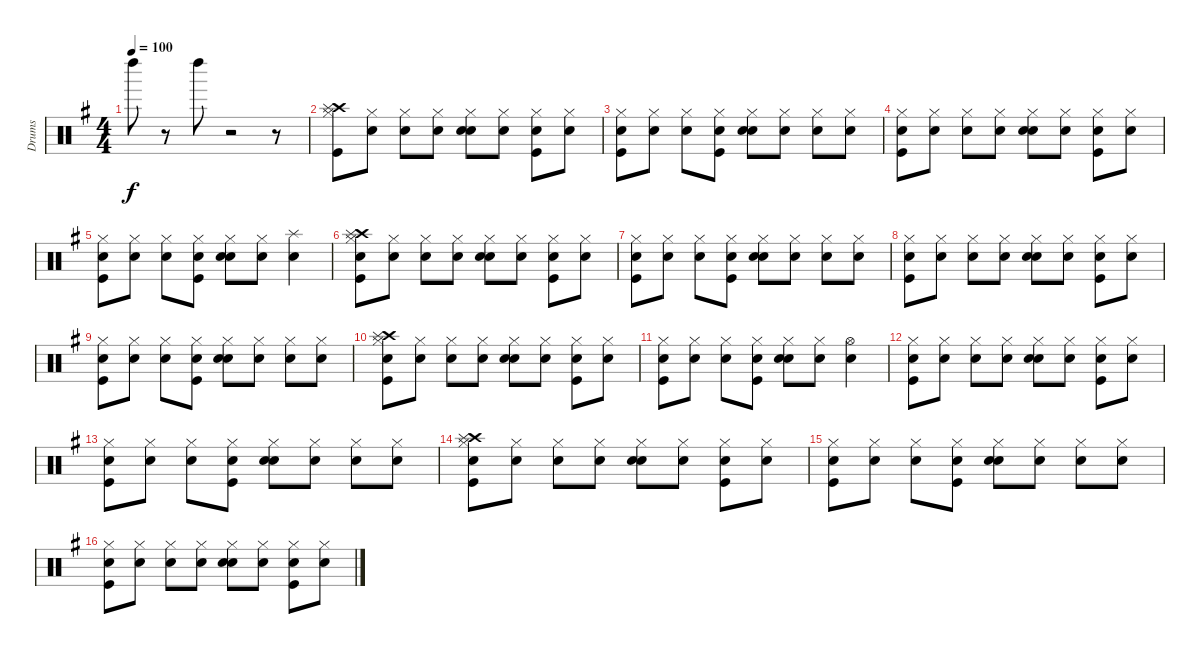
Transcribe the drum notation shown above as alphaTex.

\track ("Drums" "Drums") {instrument percussion}
\staff {score}
\articulation defaults
\ts (4 4)
\tempo 100
\clef neutral
\ks g "Left Maraca (hit)".8{dy f}
r.8 "Left Maraca (hit)".8 r.2 r.8 |
("Kick (hit)" "Crash high (hit)" "Splash (hit)" "Hi-Hat (closed)").8 ("Snare (hit)" "Hi-Hat (closed)").8 ("Snare (hit)" "Hi-Hat (closed)").8 ("Snare (hit)" "Hi-Hat (closed)").8 ("Snare (hit)" "Snare (hit) 2" "Hi-Hat (closed)").8 ("Snare (hit)" "Hi-Hat (closed)").8 ("Snare (hit)" "Kick (hit)" "Hi-Hat (closed)").8 ("Snare (hit)" "Hi-Hat (closed)").8 |
("Snare (hit)" "Kick (hit)" "Hi-Hat (closed)").8 ("Snare (hit)" "Hi-Hat (closed)").8 ("Snare (hit)" "Hi-Hat (closed)").8 ("Snare (hit)" "Kick (hit)" "Hi-Hat (closed)").8 ("Snare (hit)" "Snare (hit) 2" "Hi-Hat (closed)").8 ("Snare (hit)" "Hi-Hat (closed)").8 ("Snare (hit)" "Hi-Hat (closed)").8 ("Snare (hit)" "Hi-Hat (closed)").8 |
("Snare (hit)" "Kick (hit)" "Hi-Hat (closed)").8 ("Snare (hit)" "Hi-Hat (closed)").8 ("Snare (hit)" "Hi-Hat (closed)").8 ("Snare (hit)" "Hi-Hat (closed)").8 ("Snare (hit)" "Snare (hit) 2" "Hi-Hat (closed)").8 ("Snare (hit)" "Hi-Hat (closed)").8 ("Snare (hit)" "Kick (hit)" "Hi-Hat (closed)").8 ("Snare (hit)" "Hi-Hat (closed)").8 |
("Snare (hit)" "Kick (hit)" "Hi-Hat (closed)").8 ("Snare (hit)" "Hi-Hat (closed)").8 ("Snare (hit)" "Hi-Hat (closed)").8 ("Snare (hit)" "Kick (hit)" "Hi-Hat (closed)").8 ("Snare (hit)" "Snare (hit) 2" "Hi-Hat (closed)").8 ("Snare (hit)" "Hi-Hat (closed)").8 ("Snare (hit)" "Splash (hit)").4 |
("Snare (hit)" "Kick (hit)" "Crash high (hit)" "Splash (hit)" "Hi-Hat (closed)").8 ("Snare (hit)" "Hi-Hat (closed)").8 ("Snare (hit)" "Hi-Hat (closed)").8 ("Snare (hit)" "Hi-Hat (closed)").8 ("Snare (hit)" "Snare (hit) 2" "Hi-Hat (closed)").8 ("Snare (hit)" "Hi-Hat (closed)").8 ("Snare (hit)" "Kick (hit)" "Hi-Hat (closed)").8 ("Snare (hit)" "Hi-Hat (closed)").8 |
("Snare (hit)" "Kick (hit)" "Hi-Hat (closed)").8 ("Snare (hit)" "Hi-Hat (closed)").8 ("Snare (hit)" "Hi-Hat (closed)").8 ("Snare (hit)" "Kick (hit)" "Hi-Hat (closed)").8 ("Snare (hit)" "Snare (hit) 2" "Hi-Hat (closed)").8 ("Snare (hit)" "Hi-Hat (closed)").8 ("Snare (hit)" "Hi-Hat (closed)").8 ("Snare (hit)" "Hi-Hat (closed)").8 |
("Snare (hit)" "Kick (hit)" "Hi-Hat (closed)").8 ("Snare (hit)" "Hi-Hat (closed)").8 ("Snare (hit)" "Hi-Hat (closed)").8 ("Snare (hit)" "Hi-Hat (closed)").8 ("Snare (hit)" "Snare (hit) 2" "Hi-Hat (closed)").8 ("Snare (hit)" "Hi-Hat (closed)").8 ("Snare (hit)" "Kick (hit)" "Hi-Hat (closed)").8 ("Snare (hit)" "Hi-Hat (closed)").8 |
("Snare (hit)" "Kick (hit)" "Hi-Hat (closed)").8 ("Snare (hit)" "Hi-Hat (closed)").8 ("Snare (hit)" "Hi-Hat (closed)").8 ("Snare (hit)" "Kick (hit)" "Hi-Hat (closed)").8 ("Snare (hit)" "Snare (hit) 2" "Hi-Hat (closed)").8 ("Snare (hit)" "Hi-Hat (closed)").8 ("Snare (hit)" "Hi-Hat (closed)").8 ("Snare (hit)" "Hi-Hat (closed)").8 |
("Snare (hit)" "Kick (hit)" "Crash high (hit)" "Splash (hit)" "Hi-Hat (closed)").8 ("Snare (hit)" "Hi-Hat (closed)").8 ("Snare (hit)" "Hi-Hat (closed)").8 ("Snare (hit)" "Hi-Hat (closed)").8 ("Snare (hit)" "Snare (hit) 2" "Hi-Hat (closed)").8 ("Snare (hit)" "Hi-Hat (closed)").8 ("Snare (hit)" "Kick (hit)" "Hi-Hat (closed)").8 ("Snare (hit)" "Hi-Hat (closed)").8 |
("Snare (hit)" "Kick (hit)" "Hi-Hat (closed)").8 ("Snare (hit)" "Hi-Hat (closed)").8 ("Snare (hit)" "Hi-Hat (closed)").8 ("Snare (hit)" "Kick (hit)" "Hi-Hat (closed)").8 ("Snare (hit)" "Snare (hit) 2" "Hi-Hat (closed)").8 ("Snare (hit)" "Hi-Hat (closed)").8 ("Snare (hit)" "Hi-Hat (open)").4 |
("Snare (hit)" "Kick (hit)" "Hi-Hat (closed)").8 ("Snare (hit)" "Hi-Hat (closed)").8 ("Snare (hit)" "Hi-Hat (closed)").8 ("Snare (hit)" "Hi-Hat (closed)").8 ("Snare (hit)" "Snare (hit) 2" "Hi-Hat (closed)").8 ("Snare (hit)" "Hi-Hat (closed)").8 ("Snare (hit)" "Kick (hit)" "Hi-Hat (closed)").8 ("Snare (hit)" "Hi-Hat (closed)").8 |
("Snare (hit)" "Kick (hit)" "Hi-Hat (closed)").8 ("Snare (hit)" "Hi-Hat (closed)").8 ("Snare (hit)" "Hi-Hat (closed)").8 ("Snare (hit)" "Kick (hit)" "Hi-Hat (closed)").8 ("Snare (hit)" "Snare (hit) 2" "Hi-Hat (closed)").8 ("Snare (hit)" "Hi-Hat (closed)").8 ("Snare (hit)" "Hi-Hat (closed)").8 ("Snare (hit)" "Hi-Hat (closed)").8 |
("Snare (hit)" "Kick (hit)" "Crash high (hit)" "Splash (hit)" "Hi-Hat (closed)").8 ("Snare (hit)" "Hi-Hat (closed)").8 ("Snare (hit)" "Hi-Hat (closed)").8 ("Snare (hit)" "Hi-Hat (closed)").8 ("Snare (hit)" "Snare (hit) 2" "Hi-Hat (closed)").8 ("Snare (hit)" "Hi-Hat (closed)").8 ("Snare (hit)" "Kick (hit)" "Hi-Hat (closed)").8 ("Snare (hit)" "Hi-Hat (closed)").8 |
("Snare (hit)" "Kick (hit)" "Hi-Hat (closed)").8 ("Snare (hit)" "Hi-Hat (closed)").8 ("Snare (hit)" "Hi-Hat (closed)").8 ("Snare (hit)" "Kick (hit)" "Hi-Hat (closed)").8 ("Snare (hit)" "Snare (hit) 2" "Hi-Hat (closed)").8 ("Snare (hit)" "Hi-Hat (closed)").8 ("Snare (hit)" "Hi-Hat (closed)").8 ("Snare (hit)" "Hi-Hat (closed)").8 |
("Snare (hit)" "Kick (hit)" "Hi-Hat (closed)").8 ("Snare (hit)" "Hi-Hat (closed)").8 ("Snare (hit)" "Hi-Hat (closed)").8 ("Snare (hit)" "Hi-Hat (closed)").8 ("Snare (hit)" "Snare (hit) 2" "Hi-Hat (closed)").8 ("Snare (hit)" "Hi-Hat (closed)").8 ("Snare (hit)" "Kick (hit)" "Hi-Hat (closed)").8 ("Snare (hit)" "Hi-Hat (closed)").8
